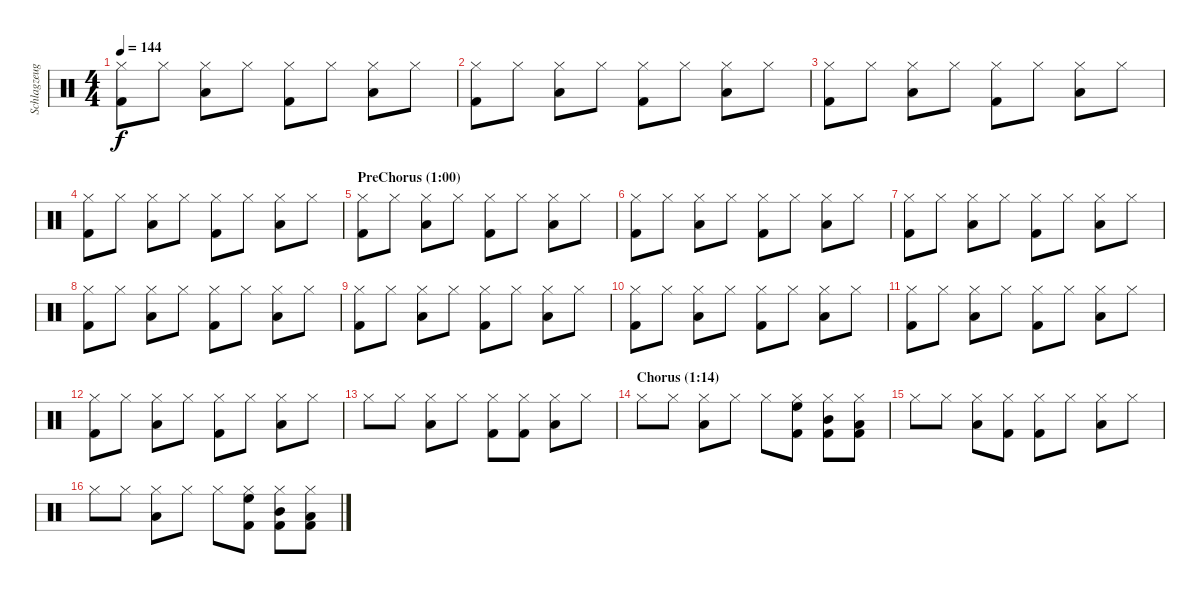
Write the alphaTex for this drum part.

\track ("Schlagzeug" "Schlagzeug") {instrument percussion}
\staff {score}
\articulation defaults
\ts (4 4)
\tempo 144
\clef neutral
\ks c
("Hi-Hat (closed)" "Kick (hit) 2").8{dy f} "Hi-Hat (closed)".8 ("Hi-Hat (closed)" "Low Tom (hit)").8 "Hi-Hat (closed)".8 ("Hi-Hat (closed)" "Kick (hit) 2").8 "Hi-Hat (closed)".8 ("Hi-Hat (closed)" "Low Tom (hit)").8 "Hi-Hat (closed)".8 |
("Hi-Hat (closed)" "Kick (hit) 2").8 "Hi-Hat (closed)".8 ("Hi-Hat (closed)" "Low Tom (hit)").8 "Hi-Hat (closed)".8 ("Hi-Hat (closed)" "Kick (hit) 2").8 "Hi-Hat (closed)".8 ("Hi-Hat (closed)" "Low Tom (hit)").8 "Hi-Hat (closed)".8 |
("Hi-Hat (closed)" "Kick (hit) 2").8 "Hi-Hat (closed)".8 ("Hi-Hat (closed)" "Low Tom (hit)").8 "Hi-Hat (closed)".8 ("Hi-Hat (closed)" "Kick (hit) 2").8 "Hi-Hat (closed)".8 ("Hi-Hat (closed)" "Low Tom (hit)").8 "Hi-Hat (closed)".8 |
("Hi-Hat (closed)" "Kick (hit) 2").8 "Hi-Hat (closed)".8 ("Hi-Hat (closed)" "Low Tom (hit)").8 "Hi-Hat (closed)".8 ("Hi-Hat (closed)" "Kick (hit) 2").8 "Hi-Hat (closed)".8 ("Hi-Hat (closed)" "Low Tom (hit)").8 "Hi-Hat (closed)".8 |
\section ("" "PreChorus (1:00)")
("Hi-Hat (closed)" "Kick (hit) 2").8 "Hi-Hat (closed)".8 ("Hi-Hat (closed)" "Low Tom (hit)").8 "Hi-Hat (closed)".8 ("Hi-Hat (closed)" "Kick (hit) 2").8 "Hi-Hat (closed)".8 ("Hi-Hat (closed)" "Low Tom (hit)").8 "Hi-Hat (closed)".8 |
("Hi-Hat (closed)" "Kick (hit) 2").8 "Hi-Hat (closed)".8 ("Hi-Hat (closed)" "Low Tom (hit)").8 "Hi-Hat (closed)".8 ("Hi-Hat (closed)" "Kick (hit) 2").8 "Hi-Hat (closed)".8 ("Hi-Hat (closed)" "Low Tom (hit)").8 "Hi-Hat (closed)".8 |
("Hi-Hat (closed)" "Kick (hit) 2").8 "Hi-Hat (closed)".8 ("Hi-Hat (closed)" "Low Tom (hit)").8 "Hi-Hat (closed)".8 ("Hi-Hat (closed)" "Kick (hit) 2").8 "Hi-Hat (closed)".8 ("Hi-Hat (closed)" "Low Tom (hit)").8 "Hi-Hat (closed)".8 |
("Hi-Hat (closed)" "Kick (hit) 2").8 "Hi-Hat (closed)".8 ("Hi-Hat (closed)" "Low Tom (hit)").8 "Hi-Hat (closed)".8 ("Hi-Hat (closed)" "Kick (hit) 2").8 "Hi-Hat (closed)".8 ("Hi-Hat (closed)" "Low Tom (hit)").8 "Hi-Hat (closed)".8 |
("Hi-Hat (closed)" "Kick (hit) 2").8 "Hi-Hat (closed)".8 ("Hi-Hat (closed)" "Low Tom (hit)").8 "Hi-Hat (closed)".8 ("Hi-Hat (closed)" "Kick (hit) 2").8 "Hi-Hat (closed)".8 ("Hi-Hat (closed)" "Low Tom (hit)").8 "Hi-Hat (closed)".8 |
("Hi-Hat (closed)" "Kick (hit) 2").8 "Hi-Hat (closed)".8 ("Hi-Hat (closed)" "Low Tom (hit)").8 "Hi-Hat (closed)".8 ("Hi-Hat (closed)" "Kick (hit) 2").8 "Hi-Hat (closed)".8 ("Hi-Hat (closed)" "Low Tom (hit)").8 "Hi-Hat (closed)".8 |
("Hi-Hat (closed)" "Kick (hit) 2").8 "Hi-Hat (closed)".8 ("Hi-Hat (closed)" "Low Tom (hit)").8 "Hi-Hat (closed)".8 ("Hi-Hat (closed)" "Kick (hit) 2").8 "Hi-Hat (closed)".8 ("Hi-Hat (closed)" "Low Tom (hit)").8 "Hi-Hat (closed)".8 |
("Hi-Hat (closed)" "Kick (hit) 2").8 "Hi-Hat (closed)".8 ("Hi-Hat (closed)" "Low Tom (hit)").8 "Hi-Hat (closed)".8 ("Hi-Hat (closed)" "Kick (hit) 2").8 "Hi-Hat (closed)".8 ("Hi-Hat (closed)" "Low Tom (hit)").8 "Hi-Hat (closed)".8 |
"Hi-Hat (closed)".8 "Hi-Hat (closed)".8 ("Hi-Hat (closed)" "Low Tom (hit)").8 "Hi-Hat (closed)".8 ("Hi-Hat (closed)" "Kick (hit) 2").8 ("Hi-Hat (closed)" "Kick (hit) 2").8 ("Hi-Hat (closed)" "Low Tom (hit)").8 "Hi-Hat (closed)".8 |
\section ("" "Chorus (1:14)")
"Hi-Hat (closed)".8 "Hi-Hat (closed)".8 ("Hi-Hat (closed)" "Low Tom (hit)").8 "Hi-Hat (closed)".8 "Hi-Hat (closed)".8 ("Hi-Hat (closed)" "High Floor Tom (hit)" "Kick (hit) 2").8 ("Hi-Hat (closed)" "Mid Tom (hit)" "Kick (hit) 2").8 ("Hi-Hat (closed)" "Low Tom (hit)" "Kick (hit) 2").8 |
"Hi-Hat (closed)".8 "Hi-Hat (closed)".8 ("Hi-Hat (closed)" "Low Tom (hit)").8 ("Hi-Hat (closed)" "Kick (hit) 2").8 ("Hi-Hat (closed)" "Kick (hit) 2").8 "Hi-Hat (closed)".8 ("Hi-Hat (closed)" "Low Tom (hit)").8 "Hi-Hat (closed)".8 |
"Hi-Hat (closed)".8 "Hi-Hat (closed)".8 ("Hi-Hat (closed)" "Low Tom (hit)").8 "Hi-Hat (closed)".8 "Hi-Hat (closed)".8 ("Hi-Hat (closed)" "High Floor Tom (hit)" "Kick (hit) 2").8 ("Hi-Hat (closed)" "Mid Tom (hit)" "Kick (hit) 2").8 ("Hi-Hat (closed)" "Low Tom (hit)" "Kick (hit) 2").8
